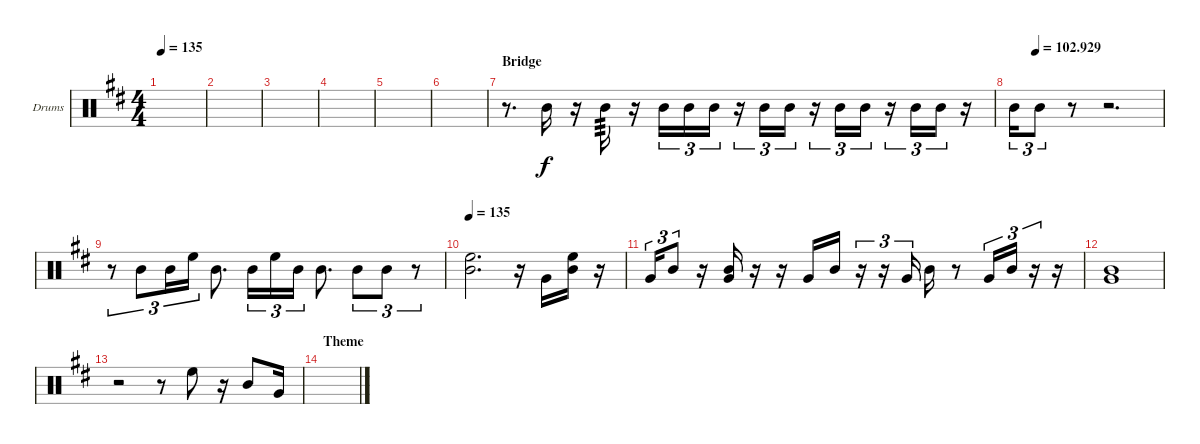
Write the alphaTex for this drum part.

\bracketExtendMode groupsimilarinstruments
\firstSystemTrackNameOrientation horizontal
\otherSystemsTrackNameOrientation horizontal
\track ("Tom" "Drums") {instrument percussion}
\staff {score}
\articulation defaults
\ts (4 4)
\tempo 135
\clef neutral
\ks d
|
|
|
|
|
|
\section ("" "Bridge")
r.8{d} "Mid Tom (hit)".16{dy f} r.16 "Mid Tom (hit)".16{tp 3} r.16 "Mid Tom (hit)".16{tu (3 2)} "Mid Tom (hit)".16{tu (3 2)} "Mid Tom (hit)".16{tu (3 2)} r.16{tu (3 2)} "Mid Tom (hit)".16{tu (3 2)} "Mid Tom (hit)".16{tu (3 2)} r.16{tu (3 2)} "Mid Tom (hit)".16{tu (3 2)} "Mid Tom (hit)".16{tu (3 2)} r.16{tu (3 2)} "Mid Tom (hit)".16{tu (3 2)} "Mid Tom (hit)".16{tu (3 2)} r.16 |
\tempo (102.929 0.15)
"Mid Tom (hit)".16{tu (3 2)} "Mid Tom (hit)".8{tu (3 2)} r.8 r.2{d} |
r.8{tu (3 2)} "Mid Tom (hit)".8{tu (3 2)} "Mid Tom (hit)".16{tu (3 2)} "High Floor Tom (hit)".16{tu (3 2)} "Mid Tom (hit)".8{d} "Mid Tom (hit)".16{tu (3 2)} "High Floor Tom (hit)".16{tu (3 2)} "Mid Tom (hit)".16{tu (3 2)} "Mid Tom (hit)".8{d} "Mid Tom (hit)".8{tu (3 2)} "Mid Tom (hit)".8{tu (3 2)} r.8{tu (3 2)} |
\tempo 135
("Mid Tom (hit)" "High Floor Tom (hit)").2{d} r.16 "Very Low Tom (hit)".16 ("Mid Tom (hit)" "High Floor Tom (hit)").16 r.16 |
"Very Low Tom (hit)".16{tu (3 2)} "Mid Tom (hit)".8{tu (3 2)} r.16 ("Very Low Tom (hit)" "Mid Tom (hit)").16 r.16 r.16 "Very Low Tom (hit)".16 "Mid Tom (hit)".16 r.16{tu (3 2)} r.16{tu (3 2)} "Very Low Tom (hit)".16{tu (3 2)} "Mid Tom (hit)".16 r.8 "Very Low Tom (hit)".16{tu (3 2)} "Mid Tom (hit)".16{tu (3 2)} r.16{tu (3 2)} r.16 |
("Mid Tom (hit)" "Very Low Tom (hit)").1 |
r.2 r.8 "High Floor Tom (hit)".8 r.16 "Mid Tom (hit)".8 "Very Low Tom (hit)".16 |
\section ("" "Theme")
